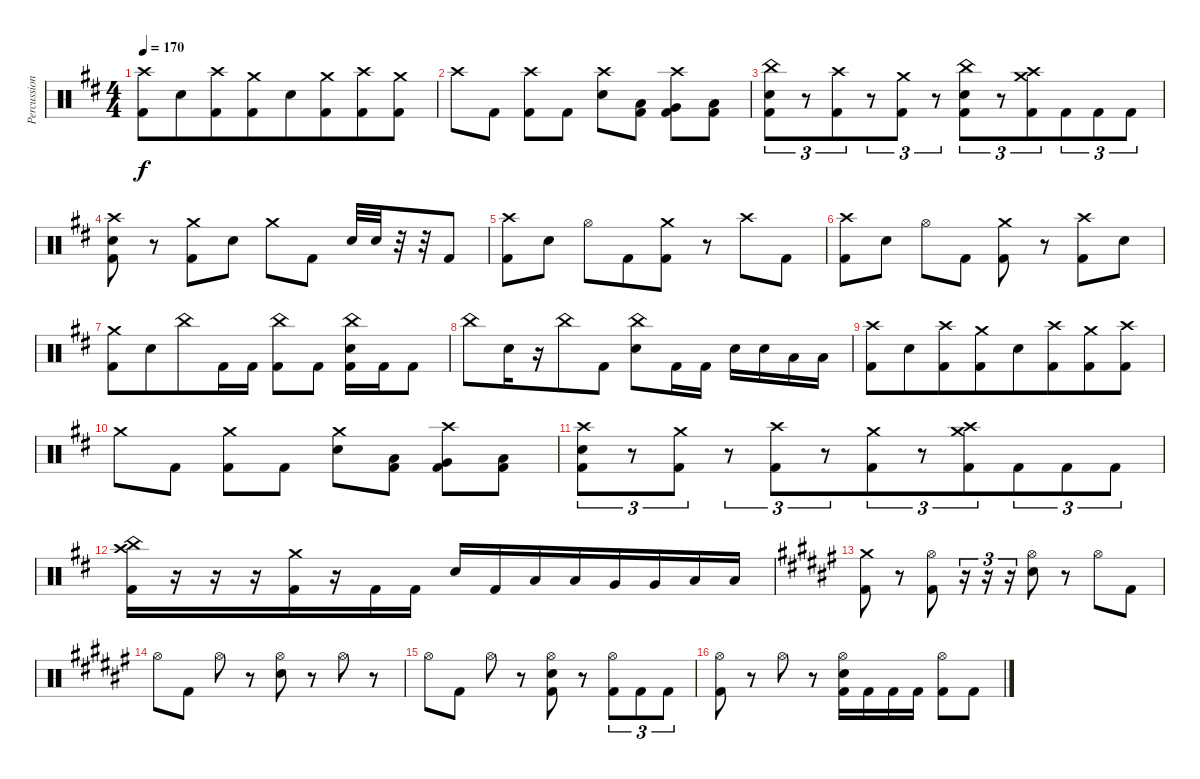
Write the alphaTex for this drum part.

\track ("Percussion" "Percussion") {instrument percussion}
\staff {score}
\articulation defaults
\ts (4 4)
\tempo 170
\clef neutral
\ks bminor
("Crash high (hit)" "Kick (hit) 2").8{dy f} "Electric Snare (hit)".8{beam merge} ("Crash high (hit)" "Kick (hit) 2").8{beam merge} ("Crash medium (hit)" "Kick (hit) 2").8{beam merge} "Electric Snare (hit)".8 ("Crash medium (hit)" "Kick (hit) 2").8{beam merge} ("Crash high (hit)" "Kick (hit) 2").8{beam merge} ("Crash medium (hit)" "Kick (hit) 2").8 |
"Crash high (hit)".8 "Kick (hit) 2".8 ("Crash high (hit)" "Kick (hit) 2").8 "Kick (hit) 2".8 ("Crash high (hit)" "Electric Snare (hit)").8 ("Low Tom (hit)" "Kick (hit) 2").8 ("Crash high (hit)" "Very Low Tom (hit)" "Kick (hit) 2").8{beam merge} ("Low Floor Tom (hit)" "Kick (hit) 2").8 |
("China (hit)" "Electric Snare (hit)" "Kick (hit) 2").8{tu (3 2) beam merge} r.8{tu (3 2) beam merge} ("Crash high (hit)" "Kick (hit) 2").8{tu (3 2) beam merge} r.8{tu (3 2)} ("Crash medium (hit)" "Kick (hit) 2").8{tu (3 2)} r.8{tu (3 2) beam merge} ("China (hit)" "Electric Snare (hit)" "Kick (hit) 2").8{tu (3 2)} r.8{tu (3 2)} ("Crash high (hit)" "Crash medium (hit)" "Kick (hit) 2").8{tu (3 2) beam merge} "Kick (hit) 2".8{tu (3 2)} "Kick (hit) 2".8{tu (3 2)} "Kick (hit) 2".8{tu (3 2)} |
("Electric Snare (hit)" "Crash high (hit)" "Kick (hit) 2").8 r.8 ("Kick (hit) 2" "Crash medium (hit)").8{beam merge} "Electric Snare (hit)".8 "Crash medium (hit)".8 "Kick (hit) 2".8 "Electric Snare (hit)".32 "Electric Snare (hit)".32 r.32 r.32 "Kick (hit) 2".8 |
("Crash high (hit)" "Kick (hit) 2").8 "Electric Snare (hit)".8 "Hi-Hat (open)".8 "Kick (hit) 2".8{beam merge} ("Crash medium (hit)" "Kick (hit) 2").8 r.8{beam merge} "Crash high (hit)".8{beam merge} "Kick (hit) 2".8 |
("Crash high (hit)" "Kick (hit) 2").8{beam merge} "Electric Snare (hit)".8 "Hi-Hat (open)".8 "Kick (hit) 2".8 ("Crash medium (hit)" "Kick (hit) 2").8 r.8{beam merge} ("Crash high (hit)" "Kick (hit) 2").8 "Electric Snare (hit)".8 |
("Crash medium (hit)" "Kick (hit) 2").8 "Electric Snare (hit)".8{beam merge} "China (hit)".8{beam merge} "Kick (hit) 2".16{beam merge} "Kick (hit) 2".16 ("China (hit)" "Kick (hit) 2").8{beam merge} "Kick (hit) 2".8 ("China (hit)" "Electric Snare (hit)" "Kick (hit) 2").16 "Kick (hit) 2".16{beam merge} "Kick (hit) 2".8 |
"China (hit)".8 "Electric Snare (hit)".16{beam merge} r.16 "China (hit)".8 "Kick (hit) 2".8 ("China (hit)" "Electric Snare (hit)").8 "Kick (hit) 2".16{beam merge} "Kick (hit) 2".16 "Electric Snare (hit)".16 "Electric Snare (hit)".16{beam merge} "Low Tom (hit)".16{beam merge} "Low Tom (hit)".16 |
("Crash high (hit)" "Kick (hit) 2").8 "Electric Snare (hit)".8{beam merge} ("Crash high (hit)" "Kick (hit) 2").8{beam merge} ("Crash medium (hit)" "Kick (hit) 2").8{beam merge} "Electric Snare (hit)".8 ("Crash high (hit)" "Kick (hit) 2").8{beam merge} ("Crash medium (hit)" "Kick (hit) 2").8{beam merge} ("Crash high (hit)" "Kick (hit) 2").8 |
"Crash medium (hit)".8 "Kick (hit) 2".8 ("Crash medium (hit)" "Kick (hit) 2").8 "Kick (hit) 2".8 ("Crash medium (hit)" "Electric Snare (hit)").8 ("Low Tom (hit)" "Kick (hit) 2").8 ("Crash high (hit)" "Very Low Tom (hit)" "Kick (hit) 2").8{beam merge} ("Low Floor Tom (hit)" "Kick (hit) 2").8 |
("Crash high (hit)" "Electric Snare (hit)" "Kick (hit) 2").8{tu (3 2)} r.8{tu (3 2)} ("Crash medium (hit)" "Kick (hit) 2").8{tu (3 2)} r.8{tu (3 2) beam merge} ("Crash high (hit)" "Kick (hit) 2").8{tu (3 2) beam merge} r.8{tu (3 2) beam merge} ("Crash medium (hit)" "Kick (hit) 2").8{tu (3 2)} r.8{tu (3 2) beam merge} ("Crash medium (hit)" "Crash high (hit)" "Kick (hit) 2").8{tu (3 2) beam merge} "Kick (hit) 2".8{tu (3 2)} "Kick (hit) 2".8{tu (3 2) beam merge} "Kick (hit) 2".8{tu (3 2)} |
("Crash high (hit)" "Kick (hit) 2" "China (hit)").16{beam merge} r.16 r.16 r.16{beam merge} ("Crash medium (hit)" "Kick (hit) 2").16 r.16{beam merge} "Kick (hit) 2".16{beam merge} "Kick (hit) 2".16 "Electric Snare (hit)".16 "Kick (hit) 2".16 "Low Tom (hit)".16{beam merge} "Low Tom (hit)".16{beam merge} "Very Low Tom (hit)".16 "Very Low Tom (hit)".16 "Low Floor Tom (hit)".16 "Low Floor Tom (hit)".16 |
\ks d#minor
("Crash medium (hit)" "Kick (hit) 2").8 r.8 ("Hi-Hat (open)" "Kick (hit) 2").8 r.16{tu (3 2)} r.16{tu (3 2)} r.16{tu (3 2)} ("Hi-Hat (open)" "Electric Snare (hit)").8 r.8 "Hi-Hat (open)".8 "Kick (hit) 2".8 |
"Hi-Hat (open)".8 "Kick (hit) 2".8 "Hi-Hat (open)".8 r.8 ("Hi-Hat (open)" "Electric Snare (hit)").8 r.8 "Hi-Hat (open)".8 r.8 |
"Hi-Hat (open)".8 "Kick (hit) 2".8 "Hi-Hat (open)".8 r.8 ("Hi-Hat (open)" "Electric Snare (hit)" "Kick (hit) 2").8 r.8 ("Hi-Hat (open)" "Kick (hit) 2").8{tu (3 2)} "Kick (hit) 2".8{tu (3 2)} "Kick (hit) 2".8{tu (3 2)} |
("Hi-Hat (open)" "Kick (hit) 2").8 r.8 "Hi-Hat (open)".8 r.8 ("Hi-Hat (open)" "Electric Snare (hit)" "Kick (hit) 2").16 "Kick (hit) 2".16 "Kick (hit) 2".16 "Kick (hit) 2".16 ("Hi-Hat (open)" "Kick (hit) 2").8 "Kick (hit) 2".8
